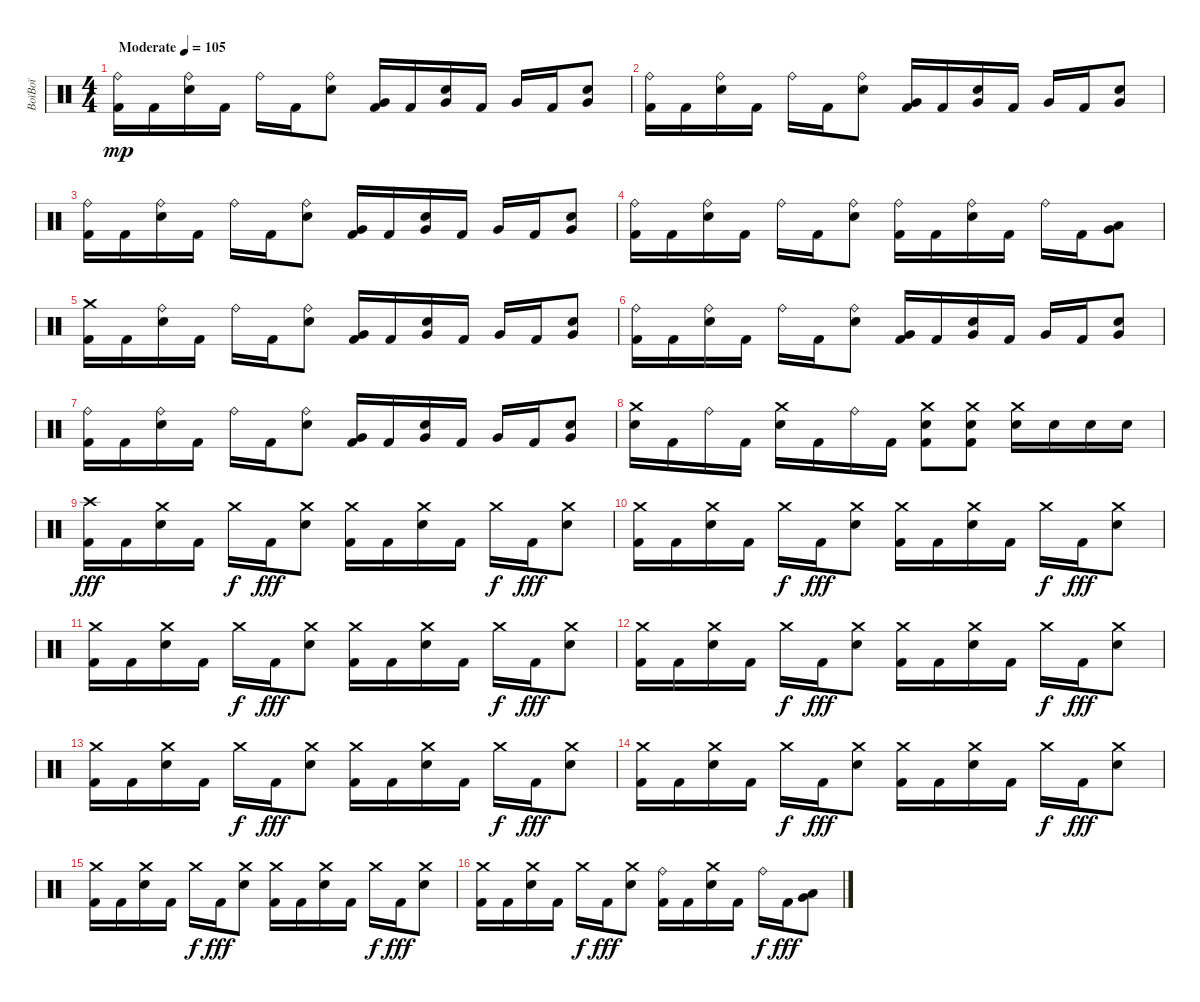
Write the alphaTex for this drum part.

\track ("BoïBoï" "BoïBoï") {instrument percussion}
\staff {score}
\articulation defaults
\ts (4 4)
\tempo (105 "Moderate")
\clef neutral
\ks c
("Ride (bell)" "Kick (hit) 2").16{dy mp} "Kick (hit) 2".16 ("Ride (bell)" "Electric Snare (hit)").16 "Kick (hit) 2".16 "Ride (bell)".16 "Kick (hit) 2".16 ("Ride (bell)" "Electric Snare (hit)").8 ("Very Low Tom (hit)" "Kick (hit) 2").16 "Kick (hit) 2".16 ("Electric Snare (hit)" "Very Low Tom (hit)").16 "Kick (hit) 2".16 "Very Low Tom (hit)".16 "Kick (hit) 2".16 ("Electric Snare (hit)" "Very Low Tom (hit)").8 |
("Ride (bell)" "Kick (hit) 2").16 "Kick (hit) 2".16 ("Ride (bell)" "Electric Snare (hit)").16 "Kick (hit) 2".16 "Ride (bell)".16 "Kick (hit) 2".16 ("Ride (bell)" "Electric Snare (hit)").8 ("Very Low Tom (hit)" "Kick (hit) 2").16 "Kick (hit) 2".16 ("Electric Snare (hit)" "Very Low Tom (hit)").16 "Kick (hit) 2".16 "Very Low Tom (hit)".16 "Kick (hit) 2".16 ("Electric Snare (hit)" "Very Low Tom (hit)").8 |
("Ride (bell)" "Kick (hit) 2").16 "Kick (hit) 2".16 ("Ride (bell)" "Electric Snare (hit)").16 "Kick (hit) 2".16 "Ride (bell)".16 "Kick (hit) 2".16 ("Ride (bell)" "Electric Snare (hit)").8 ("Very Low Tom (hit)" "Kick (hit) 2").16 "Kick (hit) 2".16 ("Electric Snare (hit)" "Very Low Tom (hit)").16 "Kick (hit) 2".16 "Very Low Tom (hit)".16 "Kick (hit) 2".16 ("Electric Snare (hit)" "Very Low Tom (hit)").8 |
("Ride (bell)" "Kick (hit) 2").16 "Kick (hit) 2".16 ("Ride (bell)" "Electric Snare (hit)").16 "Kick (hit) 2".16 "Ride (bell)".16 "Kick (hit) 2".16 ("Ride (bell)" "Electric Snare (hit)").8 ("Ride (bell)" "Kick (hit) 2").16 "Kick (hit) 2".16 ("Ride (bell)" "Electric Snare (hit)").16 "Kick (hit) 2".16 "Ride (bell)".16 "Kick (hit) 2".16 ("Low Tom (hit)" "Very Low Tom (hit)").8 |
("Crash medium (hit)" "Kick (hit) 2").16 "Kick (hit) 2".16 ("Ride (bell)" "Electric Snare (hit)").16 "Kick (hit) 2".16 "Ride (bell)".16 "Kick (hit) 2".16 ("Ride (bell)" "Electric Snare (hit)").8 ("Very Low Tom (hit)" "Kick (hit) 2").16 "Kick (hit) 2".16 ("Electric Snare (hit)" "Very Low Tom (hit)").16 "Kick (hit) 2".16 "Very Low Tom (hit)".16 "Kick (hit) 2".16 ("Electric Snare (hit)" "Very Low Tom (hit)").8 |
("Ride (bell)" "Kick (hit) 2").16 "Kick (hit) 2".16 ("Ride (bell)" "Electric Snare (hit)").16 "Kick (hit) 2".16 "Ride (bell)".16 "Kick (hit) 2".16 ("Ride (bell)" "Electric Snare (hit)").8 ("Very Low Tom (hit)" "Kick (hit) 2").16 "Kick (hit) 2".16 ("Electric Snare (hit)" "Very Low Tom (hit)").16 "Kick (hit) 2".16 "Very Low Tom (hit)".16 "Kick (hit) 2".16 ("Electric Snare (hit)" "Very Low Tom (hit)").8 |
("Ride (bell)" "Kick (hit) 2").16 "Kick (hit) 2".16 ("Ride (bell)" "Electric Snare (hit)").16 "Kick (hit) 2".16 "Ride (bell)".16 "Kick (hit) 2".16 ("Ride (bell)" "Electric Snare (hit)").8 ("Very Low Tom (hit)" "Kick (hit) 2").16 "Kick (hit) 2".16 ("Electric Snare (hit)" "Very Low Tom (hit)").16 "Kick (hit) 2".16 "Very Low Tom (hit)".16 "Kick (hit) 2".16 ("Electric Snare (hit)" "Very Low Tom (hit)").8 |
("Crash medium (hit)" "Electric Snare (hit)").16 "Kick (hit) 2".16 "Ride (bell)".16 "Kick (hit) 2".16 ("Crash medium (hit)" "Electric Snare (hit)").16 "Kick (hit) 2".16 "Ride (bell)".16 "Kick (hit) 2".16 ("Crash medium (hit)" "Electric Snare (hit)" "Kick (hit) 2").8 ("Crash medium (hit)" "Electric Snare (hit)" "Kick (hit) 2").8 ("Crash medium (hit)" "Electric Snare (hit)").16 "Electric Snare (hit)".16 "Electric Snare (hit)".16 "Electric Snare (hit)".16 |
("Crash high (hit)" "Kick (hit) 2").16{dy fff} "Kick (hit) 2".16 ("Crash medium (hit)" "Electric Snare (hit)").16 "Kick (hit) 2".16 "Crash medium (hit)".16{dy f} "Kick (hit) 2".16{dy fff} ("Crash medium (hit)" "Electric Snare (hit)").8 ("Crash medium (hit)" "Kick (hit) 2").16 "Kick (hit) 2".16 ("Crash medium (hit)" "Electric Snare (hit)").16 "Kick (hit) 2".16 "Crash medium (hit)".16{dy f} "Kick (hit) 2".16{dy fff} ("Crash medium (hit)" "Electric Snare (hit)").8 |
("Crash medium (hit)" "Kick (hit) 2").16 "Kick (hit) 2".16 ("Crash medium (hit)" "Electric Snare (hit)").16 "Kick (hit) 2".16 "Crash medium (hit)".16{dy f} "Kick (hit) 2".16{dy fff} ("Crash medium (hit)" "Electric Snare (hit)").8 ("Crash medium (hit)" "Kick (hit) 2").16 "Kick (hit) 2".16 ("Crash medium (hit)" "Electric Snare (hit)").16 "Kick (hit) 2".16 "Crash medium (hit)".16{dy f} "Kick (hit) 2".16{dy fff} ("Crash medium (hit)" "Electric Snare (hit)").8 |
("Crash medium (hit)" "Kick (hit) 2").16 "Kick (hit) 2".16 ("Crash medium (hit)" "Electric Snare (hit)").16 "Kick (hit) 2".16 "Crash medium (hit)".16{dy f} "Kick (hit) 2".16{dy fff} ("Crash medium (hit)" "Electric Snare (hit)").8 ("Crash medium (hit)" "Kick (hit) 2").16 "Kick (hit) 2".16 ("Crash medium (hit)" "Electric Snare (hit)").16 "Kick (hit) 2".16 "Crash medium (hit)".16{dy f} "Kick (hit) 2".16{dy fff} ("Crash medium (hit)" "Electric Snare (hit)").8 |
("Crash medium (hit)" "Kick (hit) 2").16 "Kick (hit) 2".16 ("Crash medium (hit)" "Electric Snare (hit)").16 "Kick (hit) 2".16 "Crash medium (hit)".16{dy f} "Kick (hit) 2".16{dy fff} ("Crash medium (hit)" "Electric Snare (hit)").8 ("Crash medium (hit)" "Kick (hit) 2").16 "Kick (hit) 2".16 ("Crash medium (hit)" "Electric Snare (hit)").16 "Kick (hit) 2".16 "Crash medium (hit)".16{dy f} "Kick (hit) 2".16{dy fff} ("Crash medium (hit)" "Electric Snare (hit)").8 |
("Crash medium (hit)" "Kick (hit) 2").16 "Kick (hit) 2".16 ("Crash medium (hit)" "Electric Snare (hit)").16 "Kick (hit) 2".16 "Crash medium (hit)".16{dy f} "Kick (hit) 2".16{dy fff} ("Crash medium (hit)" "Electric Snare (hit)").8 ("Crash medium (hit)" "Kick (hit) 2").16 "Kick (hit) 2".16 ("Crash medium (hit)" "Electric Snare (hit)").16 "Kick (hit) 2".16 "Crash medium (hit)".16{dy f} "Kick (hit) 2".16{dy fff} ("Crash medium (hit)" "Electric Snare (hit)").8 |
("Crash medium (hit)" "Kick (hit) 2").16 "Kick (hit) 2".16 ("Crash medium (hit)" "Electric Snare (hit)").16 "Kick (hit) 2".16 "Crash medium (hit)".16{dy f} "Kick (hit) 2".16{dy fff} ("Crash medium (hit)" "Electric Snare (hit)").8 ("Crash medium (hit)" "Kick (hit) 2").16 "Kick (hit) 2".16 ("Crash medium (hit)" "Electric Snare (hit)").16 "Kick (hit) 2".16 "Crash medium (hit)".16{dy f} "Kick (hit) 2".16{dy fff} ("Crash medium (hit)" "Electric Snare (hit)").8 |
("Crash medium (hit)" "Kick (hit) 2").16 "Kick (hit) 2".16 ("Crash medium (hit)" "Electric Snare (hit)").16 "Kick (hit) 2".16 "Crash medium (hit)".16{dy f} "Kick (hit) 2".16{dy fff} ("Crash medium (hit)" "Electric Snare (hit)").8 ("Crash medium (hit)" "Kick (hit) 2").16 "Kick (hit) 2".16 ("Crash medium (hit)" "Electric Snare (hit)").16 "Kick (hit) 2".16 "Crash medium (hit)".16{dy f} "Kick (hit) 2".16{dy fff} ("Crash medium (hit)" "Electric Snare (hit)").8 |
("Crash medium (hit)" "Kick (hit) 2").16 "Kick (hit) 2".16 ("Crash medium (hit)" "Electric Snare (hit)").16 "Kick (hit) 2".16 "Crash medium (hit)".16{dy f} "Kick (hit) 2".16{dy fff} ("Crash medium (hit)" "Electric Snare (hit)").8 ("Ride (bell)" "Kick (hit) 2").16 "Kick (hit) 2".16 ("Crash medium (hit)" "Electric Snare (hit)").16 "Kick (hit) 2".16 "Ride (bell)".16{dy f} "Kick (hit) 2".16{dy fff} ("Low Tom (hit)" "Very Low Tom (hit)").8
